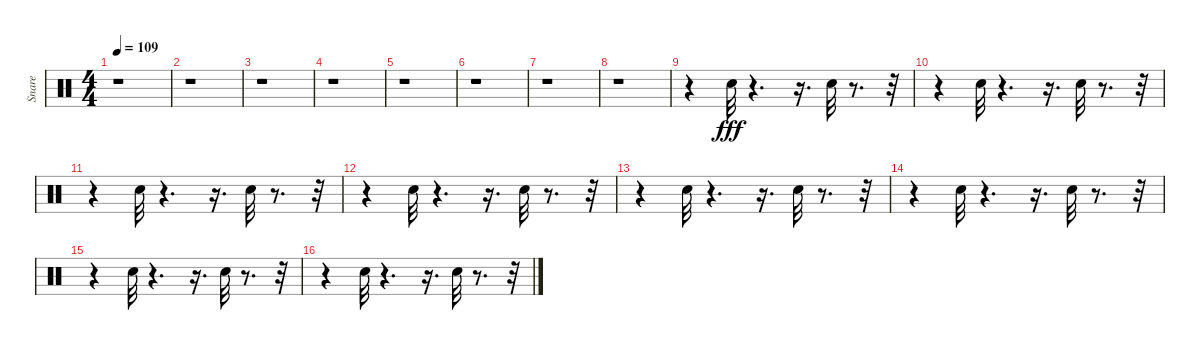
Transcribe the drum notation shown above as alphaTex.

\track ("Snare" "Snare") {instrument percussion}
\staff {score}
\articulation defaults
\ts (4 4)
\tempo 109
\clef neutral
\ks c
r.1{dy fff} |
r.1 |
r.1 |
r.1 |
r.1 |
r.1 |
r.1 |
r.1 |
r.4 "Electric Snare (hit)".32 r.4{d} r.16{d} "Electric Snare (hit)".32 r.8{d} r.32 |
r.4 "Electric Snare (hit)".32 r.4{d} r.16{d} "Electric Snare (hit)".32 r.8{d} r.32 |
r.4 "Electric Snare (hit)".32 r.4{d} r.16{d} "Electric Snare (hit)".32 r.8{d} r.32 |
r.4 "Electric Snare (hit)".32 r.4{d} r.16{d} "Electric Snare (hit)".32 r.8{d} r.32 |
r.4 "Electric Snare (hit)".32 r.4{d} r.16{d} "Electric Snare (hit)".32 r.8{d} r.32 |
r.4 "Electric Snare (hit)".32 r.4{d} r.16{d} "Electric Snare (hit)".32 r.8{d} r.32 |
r.4 "Electric Snare (hit)".32 r.4{d} r.16{d} "Electric Snare (hit)".32 r.8{d} r.32 |
r.4 "Electric Snare (hit)".32 r.4{d} r.16{d} "Electric Snare (hit)".32 r.8{d} r.32
